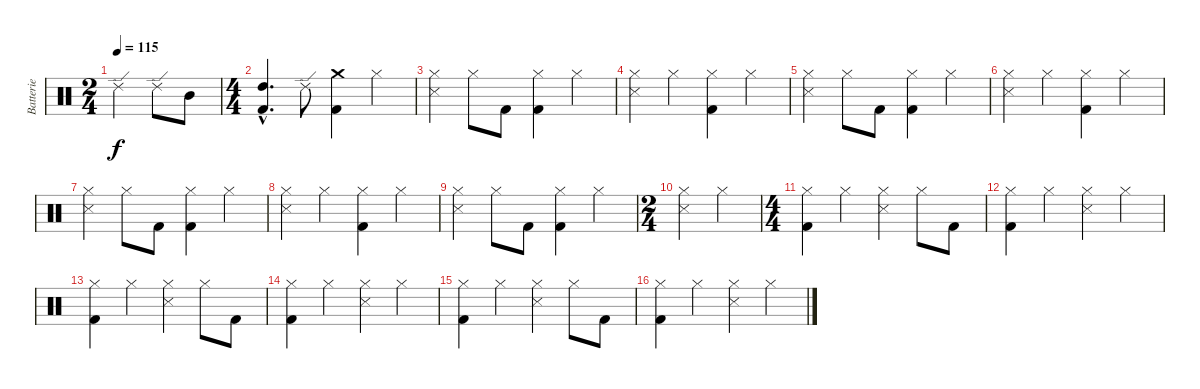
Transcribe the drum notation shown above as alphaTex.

\track ("Batterie" "Batterie") {instrument percussion}
\staff {score}
\articulation defaults
\ts (2 4)
\tempo 115
\clef neutral
\ks c "Ride (edge) 2"{t}.4{dy f} "Ride (edge) 2".8 "Mid Tom (hit)".8
|
\ts (4 4)
("High Tom (hit)"{hac} "Kick (hit) 2"{hac}).4{d} "Ride (edge) 2".8 ("Crash medium (hit)" "Kick (hit) 2").4 "Hi-Hat (closed)".4 |
("Hi-Hat (closed)" "Snare (side stick) 3").4 "Hi-Hat (closed)".8 "Kick (hit) 2".8 ("Hi-Hat (closed)" "Kick (hit) 2").4 "Hi-Hat (closed)".4 |
("Hi-Hat (closed)" "Snare (side stick) 3").4 "Hi-Hat (closed)".4 ("Hi-Hat (closed)" "Kick (hit) 2").4 "Hi-Hat (closed)".4 |
("Hi-Hat (closed)" "Snare (side stick) 3").4 "Hi-Hat (closed)".8 "Kick (hit) 2".8 ("Hi-Hat (closed)" "Kick (hit) 2").4 "Hi-Hat (closed)".4 |
("Hi-Hat (closed)" "Snare (side stick) 3").4 "Hi-Hat (closed)".4 ("Hi-Hat (closed)" "Kick (hit) 2").4 "Hi-Hat (closed)".4 |
("Hi-Hat (closed)" "Snare (side stick) 3").4 "Hi-Hat (closed)".8 "Kick (hit) 2".8 ("Hi-Hat (closed)" "Kick (hit) 2").4 "Hi-Hat (closed)".4 |
("Hi-Hat (closed)" "Snare (side stick) 3").4 "Hi-Hat (closed)".4 ("Hi-Hat (closed)" "Kick (hit) 2").4 "Hi-Hat (closed)".4 |
("Hi-Hat (closed)" "Snare (side stick) 3").4 "Hi-Hat (closed)".8 "Kick (hit) 2".8 ("Hi-Hat (closed)" "Kick (hit) 2").4 "Hi-Hat (closed)".4 |
\ts (2 4)
("Hi-Hat (closed)" "Snare (side stick) 3").4 "Hi-Hat (closed)".4 |
\ts (4 4)
("Hi-Hat (closed)" "Kick (hit) 2").4 "Hi-Hat (closed)".4 ("Hi-Hat (closed)" "Snare (side stick) 3").4 "Hi-Hat (closed)".8 "Kick (hit) 2".8 |
("Hi-Hat (closed)" "Kick (hit) 2").4 "Hi-Hat (closed)".4 ("Hi-Hat (closed)" "Snare (side stick) 3").4 "Hi-Hat (closed)".4 |
("Hi-Hat (closed)" "Kick (hit) 2").4 "Hi-Hat (closed)".4 ("Hi-Hat (closed)" "Snare (side stick) 3").4 "Hi-Hat (closed)".8 "Kick (hit) 2".8 |
("Hi-Hat (closed)" "Kick (hit) 2").4 "Hi-Hat (closed)".4 ("Hi-Hat (closed)" "Snare (side stick) 3").4 "Hi-Hat (closed)".4 |
("Hi-Hat (closed)" "Kick (hit) 2").4 "Hi-Hat (closed)".4 ("Hi-Hat (closed)" "Snare (side stick) 3").4 "Hi-Hat (closed)".8 "Kick (hit) 2".8 |
("Hi-Hat (closed)" "Kick (hit) 2").4 "Hi-Hat (closed)".4 ("Hi-Hat (closed)" "Snare (side stick) 3").4 "Hi-Hat (closed)".4
